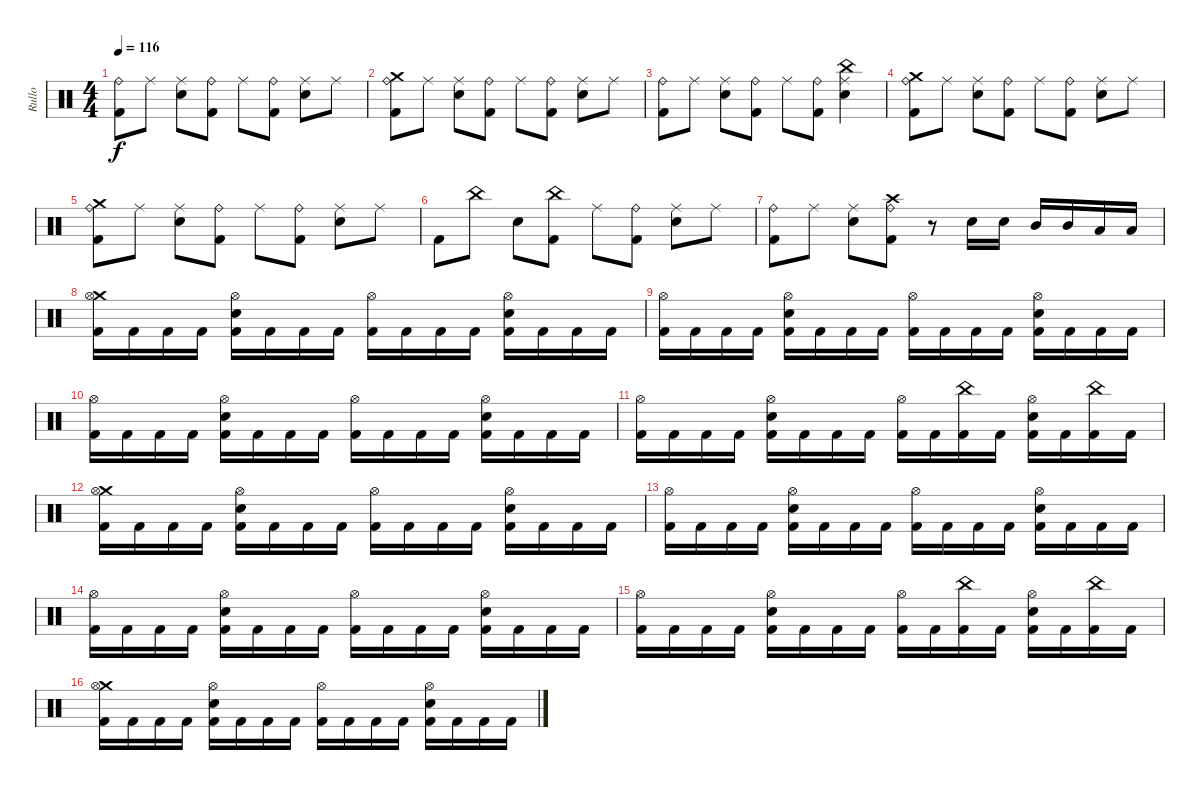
\track ("Rullo" "Rullo") {instrument percussion}
\staff {score}
\articulation defaults
\ts (4 4)
\tempo 116
\clef neutral
\ks c
("Ride (bell)" "Kick (hit) 2").8{dy f} "Ride (middle)".8 ("Ride (middle)" "Electric Snare (hit)").8 ("Ride (bell)" "Kick (hit) 2").8 "Ride (middle)".8 ("Ride (bell)" "Kick (hit) 2").8 ("Ride (middle)" "Electric Snare (hit)").8 "Ride (middle)".8 |
("Crash medium (hit)" "Ride (bell)" "Kick (hit) 2").8 "Ride (middle)".8 ("Ride (middle)" "Electric Snare (hit)").8 ("Ride (bell)" "Kick (hit) 2").8 "Ride (middle)".8 ("Ride (bell)" "Kick (hit) 2").8 ("Ride (middle)" "Electric Snare (hit)").8 "Ride (middle)".8 |
("Ride (bell)" "Kick (hit) 2").8 "Ride (middle)".8 ("Ride (middle)" "Electric Snare (hit)").8 ("Ride (bell)" "Kick (hit) 2").8 "Ride (middle)".8 ("Ride (bell)" "Kick (hit) 2").8 ("China (hit)" "Ride (middle)" "Electric Snare (hit)").4 |
("Crash medium (hit)" "Ride (bell)" "Kick (hit) 2").8 "Ride (middle)".8 ("Ride (middle)" "Electric Snare (hit)").8 ("Ride (bell)" "Kick (hit) 2").8 "Ride (middle)".8 ("Ride (bell)" "Kick (hit) 2").8 ("Ride (middle)" "Electric Snare (hit)").8 "Ride (middle)".8 |
("Crash medium (hit)" "Ride (bell)" "Kick (hit) 2").8 "Ride (middle)".8 ("Ride (middle)" "Electric Snare (hit)").8 ("Ride (bell)" "Kick (hit) 2").8 "Ride (middle)".8 ("Ride (bell)" "Kick (hit) 2").8 ("Ride (middle)" "Electric Snare (hit)").8 "Ride (middle)".8 |
"Kick (hit) 2".8 "China (hit)".8 "Electric Snare (hit)".8 ("China (hit)" "Kick (hit) 2").8 "Ride (middle)".8 ("Ride (bell)" "Kick (hit) 2").8 ("Ride (middle)" "Electric Snare (hit)").8 "Ride (middle)".8 |
("Ride (bell)" "Kick (hit) 2").8 "Ride (middle)".8 ("Ride (middle)" "Electric Snare (hit)").8 ("Crash high (hit)" "Ride (bell)" "Kick (hit) 2").8 r.8 "Electric Snare (hit)".16 "Electric Snare (hit)".16 "Mid Tom (hit)".16 "Mid Tom (hit)".16 "Low Tom (hit)".16 "Low Tom (hit)".16 |
("Crash medium (hit)" "Hi-Hat (open)" "Kick (hit) 2").16 "Kick (hit) 2".16 "Kick (hit) 2".16 "Kick (hit) 2".16 ("Hi-Hat (open)" "Electric Snare (hit)" "Kick (hit) 2").16 "Kick (hit) 2".16 "Kick (hit) 2".16 "Kick (hit) 2".16 ("Hi-Hat (open)" "Kick (hit) 2").16 "Kick (hit) 2".16 "Kick (hit) 2".16 "Kick (hit) 2".16 ("Hi-Hat (open)" "Electric Snare (hit)" "Kick (hit) 2").16 "Kick (hit) 2".16 "Kick (hit) 2".16 "Kick (hit) 2".16 |
("Hi-Hat (open)" "Kick (hit) 2").16 "Kick (hit) 2".16 "Kick (hit) 2".16 "Kick (hit) 2".16 ("Hi-Hat (open)" "Electric Snare (hit)" "Kick (hit) 2").16 "Kick (hit) 2".16 "Kick (hit) 2".16 "Kick (hit) 2".16 ("Hi-Hat (open)" "Kick (hit) 2").16 "Kick (hit) 2".16 "Kick (hit) 2".16 "Kick (hit) 2".16 ("Hi-Hat (open)" "Electric Snare (hit)" "Kick (hit) 2").16 "Kick (hit) 2".16 "Kick (hit) 2".16 "Kick (hit) 2".16 |
("Hi-Hat (open)" "Kick (hit) 2").16 "Kick (hit) 2".16 "Kick (hit) 2".16 "Kick (hit) 2".16 ("Hi-Hat (open)" "Electric Snare (hit)" "Kick (hit) 2").16 "Kick (hit) 2".16 "Kick (hit) 2".16 "Kick (hit) 2".16 ("Hi-Hat (open)" "Kick (hit) 2").16 "Kick (hit) 2".16 "Kick (hit) 2".16 "Kick (hit) 2".16 ("Hi-Hat (open)" "Electric Snare (hit)" "Kick (hit) 2").16 "Kick (hit) 2".16 "Kick (hit) 2".16 "Kick (hit) 2".16 |
("Hi-Hat (open)" "Kick (hit) 2").16 "Kick (hit) 2".16 "Kick (hit) 2".16 "Kick (hit) 2".16 ("Hi-Hat (open)" "Electric Snare (hit)" "Kick (hit) 2").16 "Kick (hit) 2".16 "Kick (hit) 2".16 "Kick (hit) 2".16 ("Hi-Hat (open)" "Kick (hit) 2").16 "Kick (hit) 2".16 ("China (hit)" "Kick (hit) 2").16 "Kick (hit) 2".16 ("Hi-Hat (open)" "Electric Snare (hit)" "Kick (hit) 2").16 "Kick (hit) 2".16 ("China (hit)" "Kick (hit) 2").16 "Kick (hit) 2".16 |
("Crash medium (hit)" "Hi-Hat (open)" "Kick (hit) 2").16 "Kick (hit) 2".16 "Kick (hit) 2".16 "Kick (hit) 2".16 ("Hi-Hat (open)" "Electric Snare (hit)" "Kick (hit) 2").16 "Kick (hit) 2".16 "Kick (hit) 2".16 "Kick (hit) 2".16 ("Hi-Hat (open)" "Kick (hit) 2").16 "Kick (hit) 2".16 "Kick (hit) 2".16 "Kick (hit) 2".16 ("Hi-Hat (open)" "Electric Snare (hit)" "Kick (hit) 2").16 "Kick (hit) 2".16 "Kick (hit) 2".16 "Kick (hit) 2".16 |
("Hi-Hat (open)" "Kick (hit) 2").16 "Kick (hit) 2".16 "Kick (hit) 2".16 "Kick (hit) 2".16 ("Hi-Hat (open)" "Electric Snare (hit)" "Kick (hit) 2").16 "Kick (hit) 2".16 "Kick (hit) 2".16 "Kick (hit) 2".16 ("Hi-Hat (open)" "Kick (hit) 2").16 "Kick (hit) 2".16 "Kick (hit) 2".16 "Kick (hit) 2".16 ("Hi-Hat (open)" "Electric Snare (hit)" "Kick (hit) 2").16 "Kick (hit) 2".16 "Kick (hit) 2".16 "Kick (hit) 2".16 |
("Hi-Hat (open)" "Kick (hit) 2").16 "Kick (hit) 2".16 "Kick (hit) 2".16 "Kick (hit) 2".16 ("Hi-Hat (open)" "Electric Snare (hit)" "Kick (hit) 2").16 "Kick (hit) 2".16 "Kick (hit) 2".16 "Kick (hit) 2".16 ("Hi-Hat (open)" "Kick (hit) 2").16 "Kick (hit) 2".16 "Kick (hit) 2".16 "Kick (hit) 2".16 ("Hi-Hat (open)" "Electric Snare (hit)" "Kick (hit) 2").16 "Kick (hit) 2".16 "Kick (hit) 2".16 "Kick (hit) 2".16 |
("Hi-Hat (open)" "Kick (hit) 2").16 "Kick (hit) 2".16 "Kick (hit) 2".16 "Kick (hit) 2".16 ("Hi-Hat (open)" "Electric Snare (hit)" "Kick (hit) 2").16 "Kick (hit) 2".16 "Kick (hit) 2".16 "Kick (hit) 2".16 ("Hi-Hat (open)" "Kick (hit) 2").16 "Kick (hit) 2".16 ("China (hit)" "Kick (hit) 2").16 "Kick (hit) 2".16 ("Hi-Hat (open)" "Electric Snare (hit)" "Kick (hit) 2").16 "Kick (hit) 2".16 ("China (hit)" "Kick (hit) 2").16 "Kick (hit) 2".16 |
("Crash medium (hit)" "Hi-Hat (open)" "Kick (hit) 2").16 "Kick (hit) 2".16 "Kick (hit) 2".16 "Kick (hit) 2".16 ("Hi-Hat (open)" "Electric Snare (hit)" "Kick (hit) 2").16 "Kick (hit) 2".16 "Kick (hit) 2".16 "Kick (hit) 2".16 ("Hi-Hat (open)" "Kick (hit) 2").16 "Kick (hit) 2".16 "Kick (hit) 2".16 "Kick (hit) 2".16 ("Hi-Hat (open)" "Electric Snare (hit)" "Kick (hit) 2").16 "Kick (hit) 2".16 "Kick (hit) 2".16 "Kick (hit) 2".16
